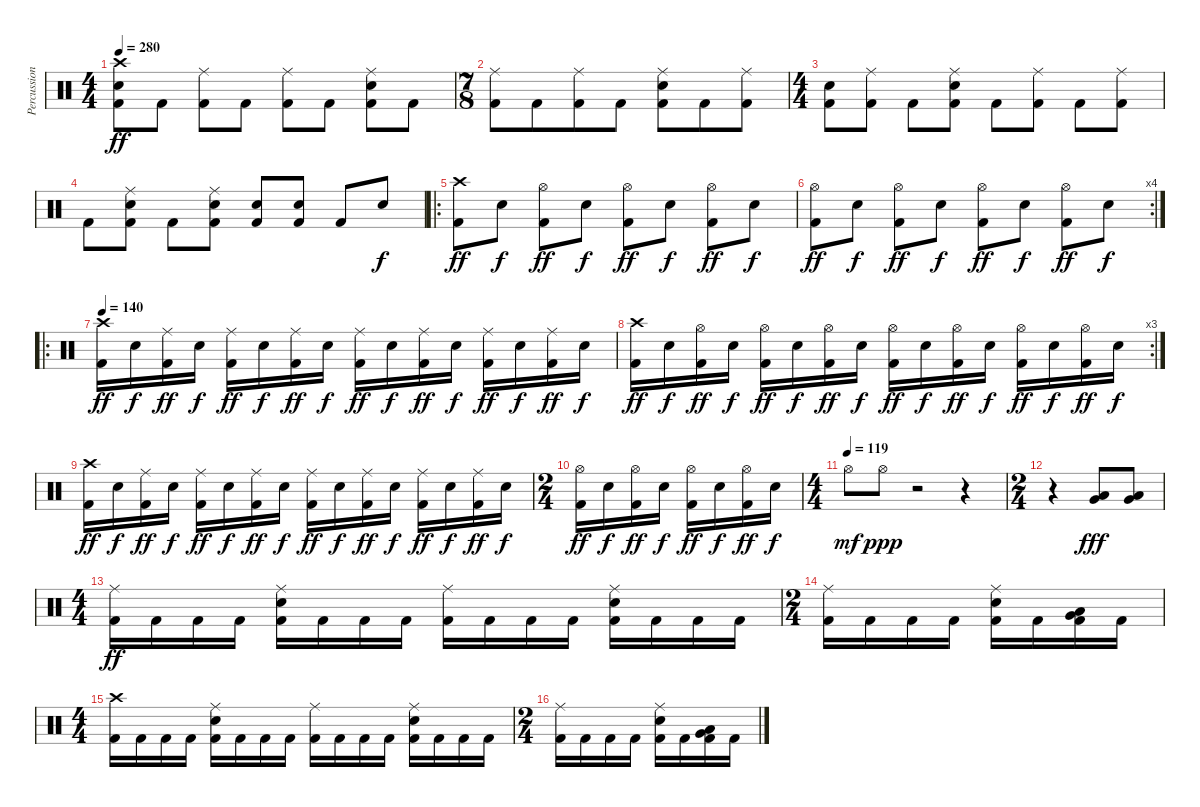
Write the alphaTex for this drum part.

\track ("Percussion" "Percussion") {instrument percussion}
\staff {score}
\articulation defaults
\ts (4 4)
\tempo 280
\clef neutral
\ks c
("Crash high (hit)" "Electric Snare (hit)" "Kick (hit) 2").8{dy ff} "Kick (hit) 2".8 ("Ride (middle)" "Kick (hit) 2").8 "Kick (hit) 2".8 ("Ride (middle)" "Kick (hit) 2").8 "Kick (hit) 2".8 ("Ride (middle)" "Electric Snare (hit)" "Kick (hit) 2").8 "Kick (hit) 2".8 |
\ts (7 8)
("Ride (middle)" "Kick (hit) 2").8 "Kick (hit) 2".8 ("Ride (middle)" "Kick (hit) 2").8 "Kick (hit) 2".8 ("Ride (middle)" "Electric Snare (hit)" "Kick (hit) 2").8 "Kick (hit) 2".8 ("Ride (middle)" "Kick (hit) 2").8 |
\ts (4 4)
("Electric Snare (hit)" "Kick (hit) 2").8 ("Ride (middle)" "Kick (hit) 2").8 "Kick (hit) 2".8 ("Ride (middle)" "Electric Snare (hit)" "Kick (hit) 2").8 "Kick (hit) 2".8 ("Ride (middle)" "Kick (hit) 2").8 "Kick (hit) 2".8 ("Ride (middle)" "Kick (hit) 2").8 |
"Kick (hit) 2".8 ("Ride (middle)" "Electric Snare (hit)" "Kick (hit) 2").8 "Kick (hit) 2".8 ("Ride (middle)" "Electric Snare (hit)" "Kick (hit) 2").8 ("Electric Snare (hit)" "Kick (hit) 2").8 ("Electric Snare (hit)" "Kick (hit) 2").8 "Kick (hit) 2".8 "Electric Snare (hit)".8{dy f} |
\ro
("Crash high (hit)" "Kick (hit) 2").8{dy ff} "Electric Snare (hit)".8{dy f} ("Hi-Hat (open)" "Kick (hit) 2").8{dy ff} "Electric Snare (hit)".8{dy f} ("Hi-Hat (open)" "Kick (hit) 2").8{dy ff} "Electric Snare (hit)".8{dy f} ("Hi-Hat (open)" "Kick (hit) 2").8{dy ff} "Electric Snare (hit)".8{dy f} |
\rc 4
("Hi-Hat (open)" "Kick (hit) 2").8{dy ff} "Electric Snare (hit)".8{dy f} ("Hi-Hat (open)" "Kick (hit) 2").8{dy ff} "Electric Snare (hit)".8{dy f} ("Hi-Hat (open)" "Kick (hit) 2").8{dy ff} "Electric Snare (hit)".8{dy f} ("Hi-Hat (open)" "Kick (hit) 2").8{dy ff} "Electric Snare (hit)".8{dy f} |
\ro
\tempo 140
("Crash high (hit)" "Kick (hit) 2").16{dy ff} "Electric Snare (hit)".16{dy f} ("Ride (middle)" "Kick (hit) 2").16{dy ff} "Electric Snare (hit)".16{dy f} ("Ride (middle)" "Kick (hit) 2").16{dy ff} "Electric Snare (hit)".16{dy f} ("Ride (middle)" "Kick (hit) 2").16{dy ff} "Electric Snare (hit)".16{dy f} ("Ride (middle)" "Kick (hit) 2").16{dy ff} "Electric Snare (hit)".16{dy f} ("Ride (middle)" "Kick (hit) 2").16{dy ff} "Electric Snare (hit)".16{dy f} ("Ride (middle)" "Kick (hit) 2").16{dy ff} "Electric Snare (hit)".16{dy f} ("Ride (middle)" "Kick (hit) 2").16{dy ff} "Electric Snare (hit)".16{dy f} |
\rc 3
("Crash high (hit)" "Kick (hit) 2").16{dy ff} "Electric Snare (hit)".16{dy f} ("Hi-Hat (open)" "Kick (hit) 2").16{dy ff} "Electric Snare (hit)".16{dy f} ("Hi-Hat (open)" "Kick (hit) 2").16{dy ff} "Electric Snare (hit)".16{dy f} ("Hi-Hat (open)" "Kick (hit) 2").16{dy ff} "Electric Snare (hit)".16{dy f} ("Hi-Hat (open)" "Kick (hit) 2").16{dy ff} "Electric Snare (hit)".16{dy f} ("Hi-Hat (open)" "Kick (hit) 2").16{dy ff} "Electric Snare (hit)".16{dy f} ("Hi-Hat (open)" "Kick (hit) 2").16{dy ff} "Electric Snare (hit)".16{dy f} ("Hi-Hat (open)" "Kick (hit) 2").16{dy ff} "Electric Snare (hit)".16{dy f} |
("Crash high (hit)" "Kick (hit) 2").16{dy ff} "Electric Snare (hit)".16{dy f} ("Ride (middle)" "Kick (hit) 2").16{dy ff} "Electric Snare (hit)".16{dy f} ("Ride (middle)" "Kick (hit) 2").16{dy ff} "Electric Snare (hit)".16{dy f} ("Ride (middle)" "Kick (hit) 2").16{dy ff} "Electric Snare (hit)".16{dy f} ("Ride (middle)" "Kick (hit) 2").16{dy ff} "Electric Snare (hit)".16{dy f} ("Ride (middle)" "Kick (hit) 2").16{dy ff} "Electric Snare (hit)".16{dy f} ("Ride (middle)" "Kick (hit) 2").16{dy ff} "Electric Snare (hit)".16{dy f} ("Ride (middle)" "Kick (hit) 2").16{dy ff} "Electric Snare (hit)".16{dy f} |
\ts (2 4)
("Hi-Hat (open)" "Kick (hit) 2").16{dy ff} "Electric Snare (hit)".16{dy f} ("Hi-Hat (open)" "Kick (hit) 2").16{dy ff} "Electric Snare (hit)".16{dy f} ("Hi-Hat (open)" "Kick (hit) 2").16{dy ff} "Electric Snare (hit)".16{dy f} ("Hi-Hat (open)" "Kick (hit) 2").16{dy ff} "Electric Snare (hit)".16{dy f} |
\ts (4 4)
\tempo (119)
"Hi-Hat (open)".8{dy mf} "Hi-Hat (open)".8{dy ppp} r.2 r.4 |
\ts (2 4)
r.4 ("Low Tom (hit)" "Very Low Tom (hit)").8{dy fff} ("Low Tom (hit)" "Very Low Tom (hit)").8 |
\ts (4 4)
("Ride (middle)" "Kick (hit) 2").16{dy ff} "Kick (hit) 2".16 "Kick (hit) 2".16 "Kick (hit) 2".16 ("Ride (middle)" "Electric Snare (hit)" "Kick (hit) 2").16 "Kick (hit) 2".16 "Kick (hit) 2".16 "Kick (hit) 2".16 ("Ride (middle)" "Kick (hit) 2").16 "Kick (hit) 2".16 "Kick (hit) 2".16 "Kick (hit) 2".16 ("Ride (middle)" "Electric Snare (hit)" "Kick (hit) 2").16 "Kick (hit) 2".16 "Kick (hit) 2".16 "Kick (hit) 2".16 |
\ts (2 4)
("Ride (middle)" "Kick (hit) 2").16 "Kick (hit) 2".16 "Kick (hit) 2".16 "Kick (hit) 2".16 ("Ride (middle)" "Electric Snare (hit)" "Kick (hit) 2").16 "Kick (hit) 2".16 ("Low Tom (hit)" "Very Low Tom (hit)" "Kick (hit) 2").16 "Kick (hit) 2".16 |
\ts (4 4)
("Crash high (hit)" "Kick (hit) 2").16 "Kick (hit) 2".16 "Kick (hit) 2".16 "Kick (hit) 2".16 ("Ride (middle)" "Electric Snare (hit)" "Kick (hit) 2").16 "Kick (hit) 2".16 "Kick (hit) 2".16 "Kick (hit) 2".16 ("Ride (middle)" "Kick (hit) 2").16 "Kick (hit) 2".16 "Kick (hit) 2".16 "Kick (hit) 2".16 ("Ride (middle)" "Electric Snare (hit)" "Kick (hit) 2").16 "Kick (hit) 2".16 "Kick (hit) 2".16 "Kick (hit) 2".16 |
\ts (2 4)
("Ride (middle)" "Kick (hit) 2").16 "Kick (hit) 2".16 "Kick (hit) 2".16 "Kick (hit) 2".16 ("Ride (middle)" "Electric Snare (hit)" "Kick (hit) 2").16 "Kick (hit) 2".16 ("Low Tom (hit)" "Very Low Tom (hit)" "Kick (hit) 2").16 "Kick (hit) 2".16
